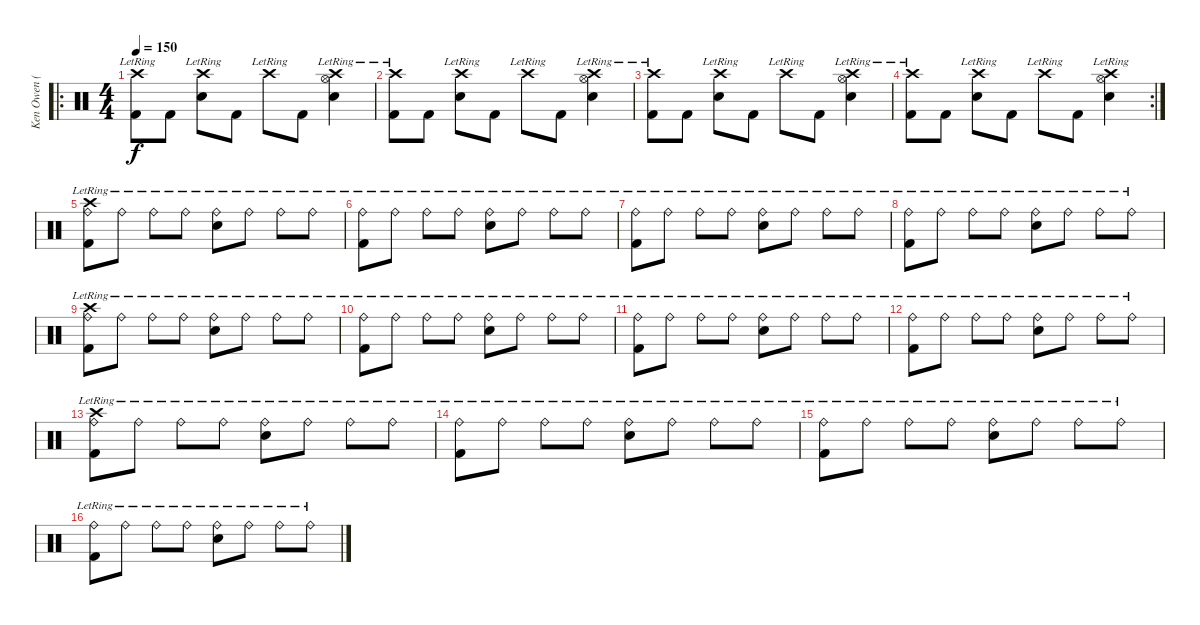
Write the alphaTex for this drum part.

\track ("Ken Owen (Drums)" "Ken Owen (") {instrument percussion}
\staff {score}
\articulation defaults
\ro
\ts (4 4)
\tempo 150
\clef neutral
\ks c
("Crash high (hit)"{lr} "Kick (hit) 2").8{dy f} "Kick (hit) 2".8 ("Crash high (hit)"{lr} "Snare (hit) 2").8 "Kick (hit) 2".8 "Crash high (hit)"{lr}.8 "Kick (hit) 2".8 ("Crash high (hit)"{lr} "Hi-Hat (open)"{lr} "Snare (hit) 2").4 |
("Crash high (hit)"{lr} "Kick (hit) 2").8 "Kick (hit) 2".8 ("Crash high (hit)"{lr} "Snare (hit) 2").8 "Kick (hit) 2".8 "Crash high (hit)"{lr}.8 "Kick (hit) 2".8 ("Crash high (hit)"{lr} "Hi-Hat (open)"{lr} "Snare (hit) 2").4 |
("Crash high (hit)"{lr} "Kick (hit) 2").8 "Kick (hit) 2".8 ("Crash high (hit)"{lr} "Snare (hit) 2").8 "Kick (hit) 2".8 "Crash high (hit)"{lr}.8 "Kick (hit) 2".8 ("Crash high (hit)"{lr} "Hi-Hat (open)"{lr} "Snare (hit) 2").4 |
\rc 2
("Crash high (hit)"{lr} "Kick (hit) 2").8 "Kick (hit) 2".8 ("Crash high (hit)"{lr} "Snare (hit) 2").8 "Kick (hit) 2".8 "Crash high (hit)"{lr}.8 "Kick (hit) 2".8 ("Crash high (hit)"{lr} "Hi-Hat (open)"{lr} "Snare (hit) 2").4 |
("Crash high (hit)"{lr} "Ride (bell)"{lr} "Kick (hit) 2").8 "Ride (bell)"{lr}.8 "Ride (bell)"{lr}.8 "Ride (bell)"{lr}.8 ("Ride (bell)"{lr} "Snare (hit) 2").8 "Ride (bell)"{lr}.8 "Ride (bell)"{lr}.8 "Ride (bell)"{lr}.8 |
("Ride (bell)"{lr} "Kick (hit) 2").8 "Ride (bell)"{lr}.8 "Ride (bell)"{lr}.8 "Ride (bell)"{lr}.8 ("Ride (bell)"{lr} "Snare (hit) 2").8 "Ride (bell)"{lr}.8 "Ride (bell)"{lr}.8 "Ride (bell)"{lr}.8 |
("Ride (bell)"{lr} "Kick (hit) 2").8 "Ride (bell)"{lr}.8 "Ride (bell)"{lr}.8 "Ride (bell)"{lr}.8 ("Ride (bell)"{lr} "Snare (hit) 2").8 "Ride (bell)"{lr}.8 "Ride (bell)"{lr}.8 "Ride (bell)"{lr}.8 |
("Ride (bell)"{lr} "Kick (hit) 2").8 "Ride (bell)"{lr}.8 "Ride (bell)"{lr}.8 "Ride (bell)"{lr}.8 ("Ride (bell)"{lr} "Snare (hit) 2").8 "Ride (bell)"{lr}.8 "Ride (bell)"{lr}.8 "Ride (bell)"{lr}.8 |
("Crash high (hit)"{lr} "Ride (bell)"{lr} "Kick (hit) 2").8 "Ride (bell)"{lr}.8 "Ride (bell)"{lr}.8 "Ride (bell)"{lr}.8 ("Ride (bell)"{lr} "Snare (hit) 2").8 "Ride (bell)"{lr}.8 "Ride (bell)"{lr}.8 "Ride (bell)"{lr}.8 |
("Ride (bell)"{lr} "Kick (hit) 2").8 "Ride (bell)"{lr}.8 "Ride (bell)"{lr}.8 "Ride (bell)"{lr}.8 ("Ride (bell)"{lr} "Snare (hit) 2").8 "Ride (bell)"{lr}.8 "Ride (bell)"{lr}.8 "Ride (bell)"{lr}.8 |
("Ride (bell)"{lr} "Kick (hit) 2").8 "Ride (bell)"{lr}.8 "Ride (bell)"{lr}.8 "Ride (bell)"{lr}.8 ("Ride (bell)"{lr} "Snare (hit) 2").8 "Ride (bell)"{lr}.8 "Ride (bell)"{lr}.8 "Ride (bell)"{lr}.8 |
("Ride (bell)"{lr} "Kick (hit) 2").8 "Ride (bell)"{lr}.8 "Ride (bell)"{lr}.8 "Ride (bell)"{lr}.8 ("Ride (bell)"{lr} "Snare (hit) 2").8 "Ride (bell)"{lr}.8 "Ride (bell)"{lr}.8 "Ride (bell)"{lr}.8 |
("Crash high (hit)"{lr} "Ride (bell)"{lr} "Kick (hit) 2").8 "Ride (bell)"{lr}.8 "Ride (bell)"{lr}.8 "Ride (bell)"{lr}.8 ("Ride (bell)"{lr} "Snare (hit) 2").8 "Ride (bell)"{lr}.8 "Ride (bell)"{lr}.8 "Ride (bell)"{lr}.8 |
("Ride (bell)"{lr} "Kick (hit) 2").8 "Ride (bell)"{lr}.8 "Ride (bell)"{lr}.8 "Ride (bell)"{lr}.8 ("Ride (bell)"{lr} "Snare (hit) 2").8 "Ride (bell)"{lr}.8 "Ride (bell)"{lr}.8 "Ride (bell)"{lr}.8 |
("Ride (bell)"{lr} "Kick (hit) 2").8 "Ride (bell)"{lr}.8 "Ride (bell)"{lr}.8 "Ride (bell)"{lr}.8 ("Ride (bell)"{lr} "Snare (hit) 2").8 "Ride (bell)"{lr}.8 "Ride (bell)"{lr}.8 "Ride (bell)"{lr}.8 |
("Ride (bell)"{lr} "Kick (hit) 2").8 "Ride (bell)"{lr}.8 "Ride (bell)"{lr}.8 "Ride (bell)"{lr}.8 ("Ride (bell)"{lr} "Snare (hit) 2").8 "Ride (bell)"{lr}.8 "Ride (bell)"{lr}.8 "Ride (bell)"{lr}.8
